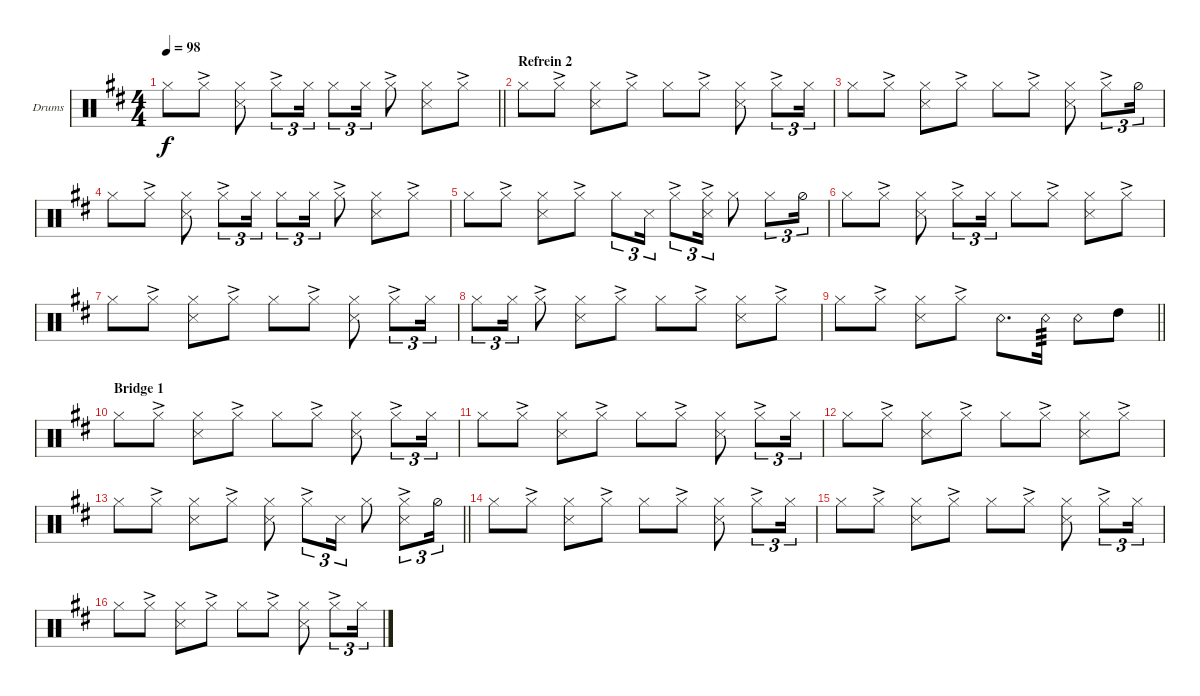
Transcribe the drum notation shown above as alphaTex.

\bracketExtendMode groupsimilarinstruments
\firstSystemTrackNameOrientation horizontal
\otherSystemsTrackNameOrientation horizontal
\track ("Drumkit" "Drums") {instrument percussion}
\staff {score}
\articulation defaults
\ts (4 4)
\tempo 98
\clef neutral
\barLineRight lightlight
\ks d "Hi-Hat (closed)".8{dy f} "Hi-Hat (closed)"{ac}.8
("Snare (side stick) 3" "Hi-Hat (closed)").8 "Hi-Hat (closed)"{ac}.8{tu (3 2)} "Hi-Hat (closed)".16{tu (3 2)} "Hi-Hat (closed)".8{tu (3 2)} "Hi-Hat (closed)".16{tu (3 2)} "Hi-Hat (closed)"{ac}.8 ("Snare (side stick) 3" "Hi-Hat (closed)").8 "Hi-Hat (closed)"{ac}.8 |
\section ("" "Refrein 2")
"Hi-Hat (closed)".8 "Hi-Hat (closed)"{ac}.8 ("Snare (side stick) 3" "Hi-Hat (closed)").8 "Hi-Hat (closed)"{ac}.8 "Hi-Hat (closed)".8 "Hi-Hat (closed)"{ac}.8 ("Snare (side stick) 3" "Hi-Hat (closed)").8 "Hi-Hat (closed)"{ac}.8{tu (3 2)} "Hi-Hat (closed)".16{tu (3 2)} |
"Hi-Hat (closed)".8 "Hi-Hat (closed)"{ac}.8 ("Snare (side stick) 3" "Hi-Hat (closed)").8 "Hi-Hat (closed)"{ac}.8 "Hi-Hat (closed)".8 "Hi-Hat (closed)"{ac}.8 ("Snare (side stick) 3" "Hi-Hat (closed)").8 "Hi-Hat (closed)"{ac}.8{tu (3 2)} "Hi-Hat (half)".16{tu (3 2)} |
"Hi-Hat (closed)".8 "Hi-Hat (closed)"{ac}.8 ("Snare (side stick) 3" "Hi-Hat (closed)").8 "Hi-Hat (closed)"{ac}.8{tu (3 2)} "Hi-Hat (closed)".16{tu (3 2)} "Hi-Hat (closed)".8{tu (3 2)} "Hi-Hat (closed)".16{tu (3 2)} "Hi-Hat (closed)"{ac}.8 ("Snare (side stick) 3" "Hi-Hat (closed)").8 "Hi-Hat (closed)"{ac}.8 |
"Hi-Hat (closed)".8 "Hi-Hat (closed)"{ac}.8 ("Snare (side stick) 3" "Hi-Hat (closed)").8 "Hi-Hat (closed)"{ac}.8 "Hi-Hat (closed)".8{tu (3 2)} "Snare (side stick) 3".16{tu (3 2)} "Hi-Hat (closed)"{ac}.8{tu (3 2)} ("Hi-Hat (closed)"{ac} "Snare (side stick) 3").16{tu (3 2)} "Hi-Hat (closed)".8 "Hi-Hat (closed)".8{tu (3 2)} "Hi-Hat (half)".16{tu (3 2)} |
"Hi-Hat (closed)".8 "Hi-Hat (closed)"{ac}.8 ("Snare (side stick) 3" "Hi-Hat (closed)").8 "Hi-Hat (closed)"{ac}.8{tu (3 2)} "Hi-Hat (closed)".16{tu (3 2)} "Hi-Hat (closed)".8 "Hi-Hat (closed)"{ac}.8 ("Snare (side stick) 3" "Hi-Hat (closed)").8 "Hi-Hat (closed)"{ac}.8 |
"Hi-Hat (closed)".8 "Hi-Hat (closed)"{ac}.8 ("Snare (side stick) 3" "Hi-Hat (closed)").8 "Hi-Hat (closed)"{ac}.8 "Hi-Hat (closed)".8 "Hi-Hat (closed)"{ac}.8 ("Snare (side stick) 3" "Hi-Hat (closed)").8 "Hi-Hat (closed)"{ac}.8{tu (3 2)} "Hi-Hat (closed)".16{tu (3 2)} |
"Hi-Hat (closed)".8{tu (3 2)} "Hi-Hat (closed)".16{tu (3 2)} "Hi-Hat (closed)"{ac}.8 ("Snare (side stick) 3" "Hi-Hat (closed)").8 "Hi-Hat (closed)"{ac}.8 "Hi-Hat (closed)".8 "Hi-Hat (closed)"{ac}.8 ("Snare (side stick) 3" "Hi-Hat (closed)").8 "Hi-Hat (closed)"{ac}.8 |
\barLineRight lightlight "Hi-Hat (closed)".8 "Hi-Hat (closed)"{ac}.8
("Snare (side stick) 3" "Hi-Hat (closed)").8 "Hi-Hat (closed)"{ac}.8 "Snare (rim shot)".8{d} "Snare (rim shot)".16{tp 3} "Snare (rim shot)".8 "High Tom (hit)".8 |
\section ("" "Bridge 1")
"Hi-Hat (closed)".8 "Hi-Hat (closed)"{ac}.8 ("Snare (side stick) 3" "Hi-Hat (closed)").8 "Hi-Hat (closed)"{ac}.8 "Hi-Hat (closed)".8 "Hi-Hat (closed)"{ac}.8 ("Snare (side stick) 3" "Hi-Hat (closed)").8 "Hi-Hat (closed)"{ac}.8{tu (3 2)} "Hi-Hat (closed)".16{tu (3 2)} |
"Hi-Hat (closed)".8 "Hi-Hat (closed)"{ac}.8 ("Snare (side stick) 3" "Hi-Hat (closed)").8 "Hi-Hat (closed)"{ac}.8 "Hi-Hat (closed)".8 "Hi-Hat (closed)"{ac}.8 ("Snare (side stick) 3" "Hi-Hat (closed)").8 "Hi-Hat (closed)"{ac}.8{tu (3 2)} "Hi-Hat (closed)".16{tu (3 2)} |
"Hi-Hat (closed)".8 "Hi-Hat (closed)"{ac}.8 ("Snare (side stick) 3" "Hi-Hat (closed)").8 "Hi-Hat (closed)"{ac}.8 "Hi-Hat (closed)".8 "Hi-Hat (closed)"{ac}.8 ("Snare (side stick) 3" "Hi-Hat (closed)").8 "Hi-Hat (closed)"{ac}.8 |
\barLineRight lightlight "Hi-Hat (closed)".8 "Hi-Hat (closed)"{ac}.8
("Snare (side stick) 3" "Hi-Hat (closed)").8 "Hi-Hat (closed)"{ac}.8 ("Hi-Hat (closed)" "Snare (side stick) 3").8 "Hi-Hat (closed)"{ac}.8{tu (3 2)} "Snare (side stick) 3".16{tu (3 2)} "Hi-Hat (closed)".8 ("Hi-Hat (closed)"{ac} "Snare (side stick) 3").8{tu (3 2)} "Hi-Hat (half)".16{tu (3 2)} |
"Hi-Hat (closed)".8 "Hi-Hat (closed)"{ac}.8 ("Snare (side stick) 3" "Hi-Hat (closed)").8 "Hi-Hat (closed)"{ac}.8 "Hi-Hat (closed)".8 "Hi-Hat (closed)"{ac}.8 ("Snare (side stick) 3" "Hi-Hat (closed)").8 "Hi-Hat (closed)"{ac}.8{tu (3 2)} "Hi-Hat (closed)".16{tu (3 2)} |
"Hi-Hat (closed)".8 "Hi-Hat (closed)"{ac}.8 ("Snare (side stick) 3" "Hi-Hat (closed)").8 "Hi-Hat (closed)"{ac}.8 "Hi-Hat (closed)".8 "Hi-Hat (closed)"{ac}.8 ("Snare (side stick) 3" "Hi-Hat (closed)").8 "Hi-Hat (closed)"{ac}.8{tu (3 2)} "Hi-Hat (closed)".16{tu (3 2)} |
"Hi-Hat (closed)".8 "Hi-Hat (closed)"{ac}.8 ("Snare (side stick) 3" "Hi-Hat (closed)").8 "Hi-Hat (closed)"{ac}.8 "Hi-Hat (closed)".8 "Hi-Hat (closed)"{ac}.8 ("Snare (side stick) 3" "Hi-Hat (closed)").8 "Hi-Hat (closed)"{ac}.8{tu (3 2)} "Hi-Hat (closed)".16{tu (3 2)}
